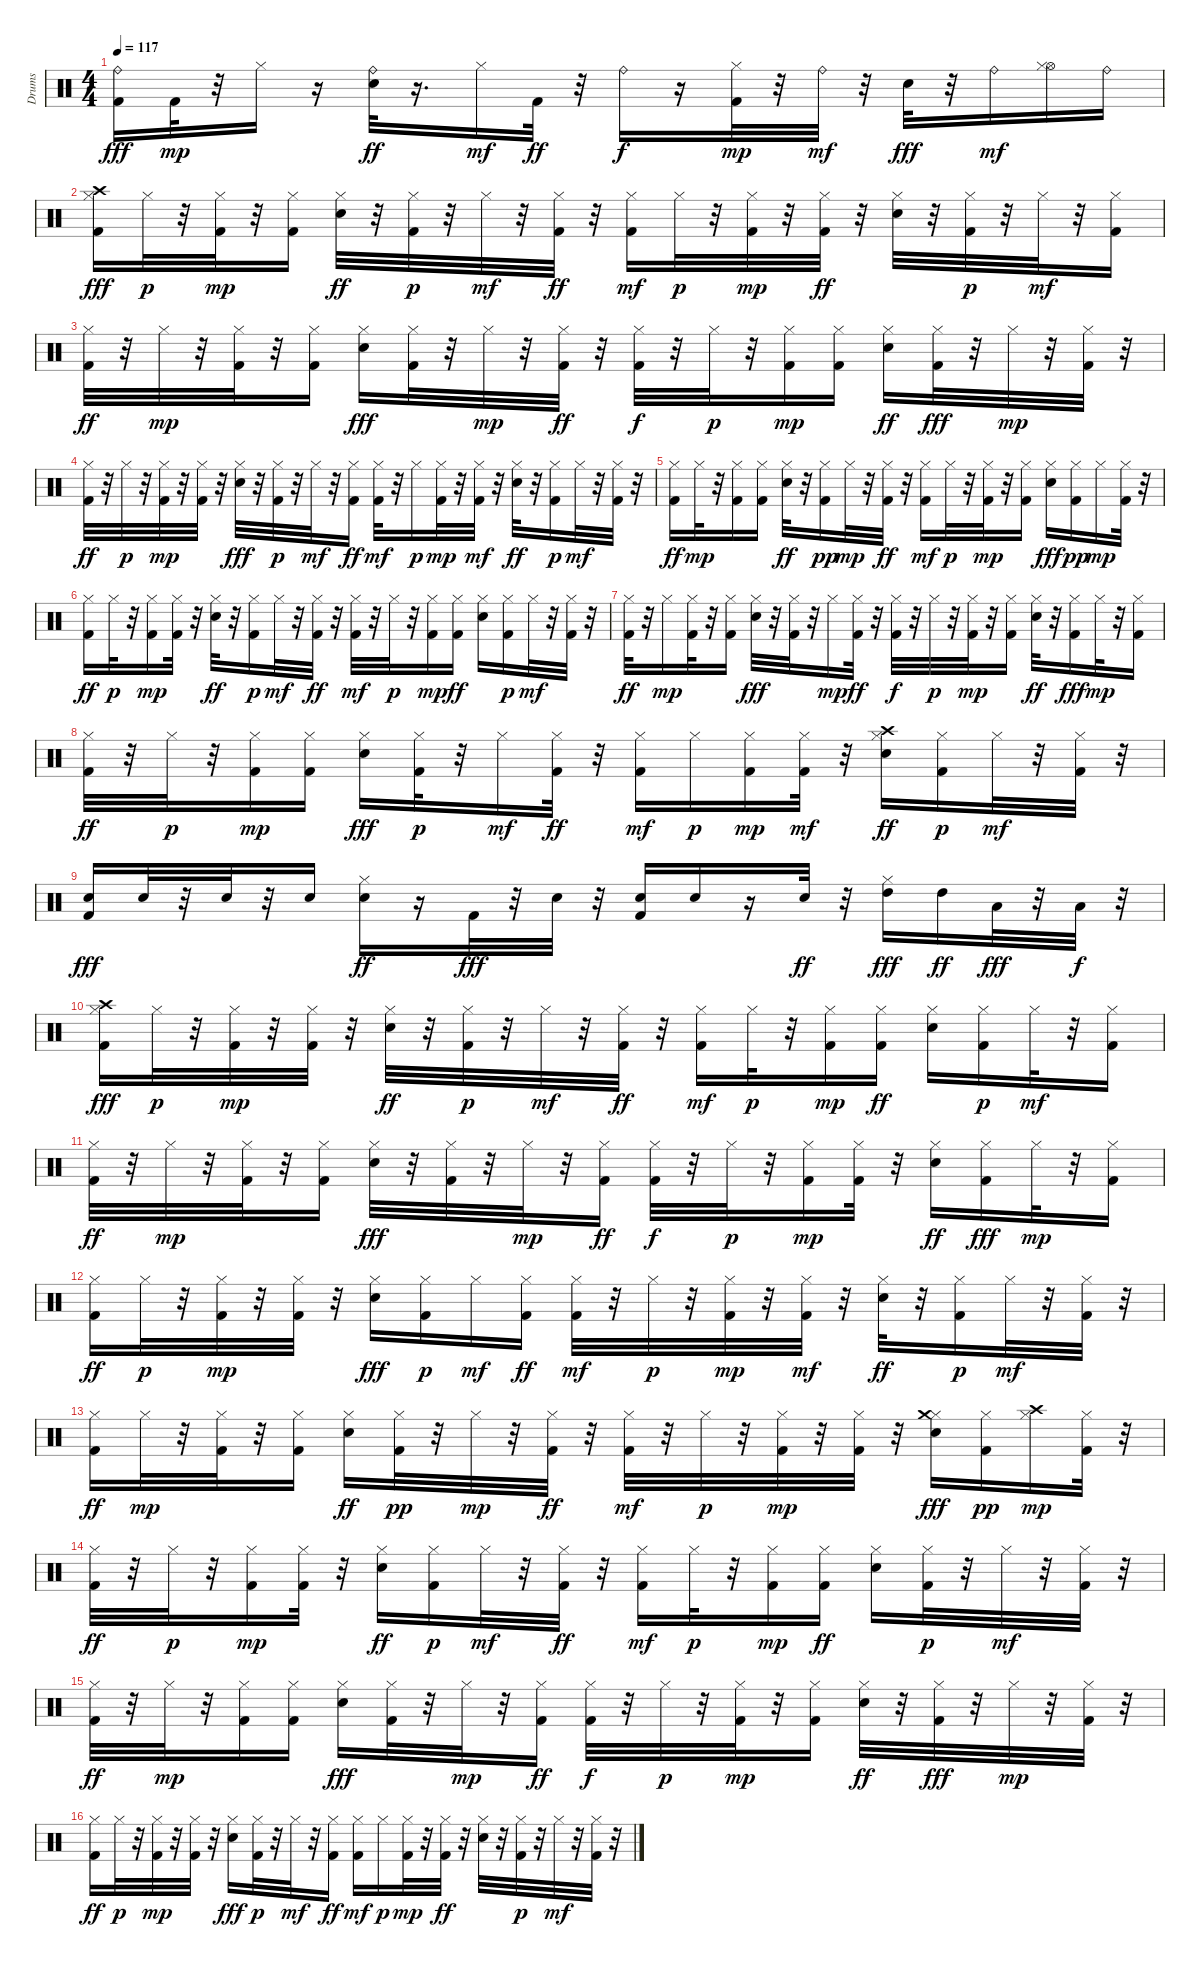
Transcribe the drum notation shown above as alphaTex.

\track ("Drums" "Drums") {instrument percussion}
\staff {score}
\articulation defaults
\ts (4 4)
\tempo 117
\clef neutral
\ks c
("Kick (hit) 2" "Ride (bell)").16{dy fff} "Kick (hit) 2".32{dy mp} r.32 "Hi-Hat (closed)".16 r.16 ("Ride (bell)" "Snare (hit) 2").32{dy ff} r.16{d} "Hi-Hat (closed)".16{dy mf} "Kick (hit) 2".32{dy ff} r.32 "Ride (bell)".16{dy f} r.16 ("Kick (hit) 2" "Hi-Hat (closed)").32{dy mp} r.32 "Ride (bell)".32{dy mf} r.32 "Snare (hit) 2".32{dy fff} r.32 "Ride (bell)".16{dy mf} ("Hi-Hat (open)" "Hi-Hat (closed)").16 "Ride (bell)".16 |
("Kick (hit) 2" "Hi-Hat (closed)" "Crash high (hit)").16{dy fff} "Hi-Hat (closed)".32{dy p} r.32 ("Kick (hit) 2" "Hi-Hat (closed)").32{dy mp} r.32 ("Kick (hit) 2" "Hi-Hat (closed)").16 ("Hi-Hat (closed)" "Snare (hit) 2").32{dy ff} r.32 ("Kick (hit) 2" "Hi-Hat (closed)").32{dy p} r.32 "Hi-Hat (closed)".32{dy mf} r.32 ("Kick (hit) 2" "Hi-Hat (closed)").32{dy ff} r.32 ("Kick (hit) 2" "Hi-Hat (closed)").16{dy mf} "Hi-Hat (closed)".32{dy p} r.32 ("Kick (hit) 2" "Hi-Hat (closed)").32{dy mp} r.32 ("Kick (hit) 2" "Hi-Hat (closed)").32{dy ff} r.32 ("Hi-Hat (closed)" "Snare (hit) 2").32 r.32 ("Kick (hit) 2" "Hi-Hat (closed)").32{dy p} r.32 "Hi-Hat (closed)".32{dy mf} r.32 ("Kick (hit) 2" "Hi-Hat (closed)").16 |
("Kick (hit) 2" "Hi-Hat (closed)").32{dy ff} r.32 "Hi-Hat (closed)".32{dy mp} r.32 ("Kick (hit) 2" "Hi-Hat (closed)").32 r.32 ("Kick (hit) 2" "Hi-Hat (closed)").16 ("Hi-Hat (closed)" "Snare (hit) 2").16{dy fff} ("Hi-Hat (closed)" "Kick (hit) 2").32 r.32 "Hi-Hat (closed)".32{dy mp} r.32 ("Kick (hit) 2" "Hi-Hat (closed)").32{dy ff} r.32 ("Hi-Hat (closed)" "Kick (hit) 2").32{dy f} r.32 "Hi-Hat (closed)".32{dy p} r.32 ("Kick (hit) 2" "Hi-Hat (closed)").16{dy mp} ("Kick (hit) 2" "Hi-Hat (closed)").16 ("Hi-Hat (closed)" "Snare (hit) 2").16{dy ff} ("Hi-Hat (closed)" "Kick (hit) 2").32{dy fff} r.32 "Hi-Hat (closed)".32{dy mp} r.32 ("Kick (hit) 2" "Hi-Hat (closed)").32 r.32 |
("Kick (hit) 2" "Hi-Hat (closed)").32{dy ff} r.32 "Hi-Hat (closed)".32{dy p} r.32 ("Kick (hit) 2" "Hi-Hat (closed)").32{dy mp} r.32 ("Kick (hit) 2" "Hi-Hat (closed)").32 r.32 ("Hi-Hat (closed)" "Snare (hit) 2").32{dy fff} r.32 ("Kick (hit) 2" "Hi-Hat (closed)").32{dy p} r.32 "Hi-Hat (closed)".32{dy mf} r.32 ("Hi-Hat (closed)" "Kick (hit) 2").16{dy ff} ("Kick (hit) 2" "Hi-Hat (closed)").32{dy mf} r.32 "Hi-Hat (closed)".16{dy p} ("Kick (hit) 2" "Hi-Hat (closed)").32{dy mp} r.32 ("Hi-Hat (closed)" "Kick (hit) 2").32{dy mf} r.32 ("Hi-Hat (closed)" "Snare (hit) 2").32{dy ff} r.32 ("Kick (hit) 2" "Hi-Hat (closed)").16{dy p} "Hi-Hat (closed)".32{dy mf} r.32 ("Kick (hit) 2" "Hi-Hat (closed)").32 r.32 |
("Kick (hit) 2" "Hi-Hat (closed)").16{dy ff} "Hi-Hat (closed)".32{dy mp} r.32 ("Kick (hit) 2" "Hi-Hat (closed)").16 ("Kick (hit) 2" "Hi-Hat (closed)").16 ("Hi-Hat (closed)" "Snare (hit) 2").32{dy ff} r.32 ("Kick (hit) 2" "Hi-Hat (closed)").16{dy pp} "Hi-Hat (closed)".32{dy mp} r.32 ("Kick (hit) 2" "Hi-Hat (closed)").32{dy ff} r.32 ("Kick (hit) 2" "Hi-Hat (closed)").16{dy mf} "Hi-Hat (closed)".32{dy p} r.32 ("Kick (hit) 2" "Hi-Hat (closed)").32{dy mp} r.32 ("Kick (hit) 2" "Hi-Hat (closed)").16 ("Hi-Hat (closed)" "Snare (hit) 2").16{dy fff} ("Kick (hit) 2" "Hi-Hat (closed)").16{dy pp} "Hi-Hat (closed)".16{dy mp} ("Kick (hit) 2" "Hi-Hat (closed)").32 r.32 |
("Kick (hit) 2" "Hi-Hat (closed)").16{dy ff} "Hi-Hat (closed)".32{dy p} r.32 ("Kick (hit) 2" "Hi-Hat (closed)").16{dy mp} ("Kick (hit) 2" "Hi-Hat (closed)").32 r.32 ("Hi-Hat (closed)" "Snare (hit) 2").32{dy ff} r.32 ("Kick (hit) 2" "Hi-Hat (closed)").16{dy p} "Hi-Hat (closed)".32{dy mf} r.32 ("Kick (hit) 2" "Hi-Hat (closed)").32{dy ff} r.32 ("Kick (hit) 2" "Hi-Hat (closed)").32{dy mf} r.32 "Hi-Hat (closed)".32{dy p} r.32 ("Kick (hit) 2" "Hi-Hat (closed)").16{dy mp} ("Kick (hit) 2" "Hi-Hat (closed)").16{dy ff} ("Hi-Hat (closed)" "Snare (hit) 2").16 ("Kick (hit) 2" "Hi-Hat (closed)").16{dy p} "Hi-Hat (closed)".32{dy mf} r.32 ("Kick (hit) 2" "Hi-Hat (closed)").32 r.32 |
("Kick (hit) 2" "Hi-Hat (closed)").32{dy ff} r.32 "Hi-Hat (closed)".16{dy mp} ("Kick (hit) 2" "Hi-Hat (closed)").32 r.32 ("Kick (hit) 2" "Hi-Hat (closed)").16 ("Hi-Hat (closed)" "Snare (hit) 2").32{dy fff} r.32 ("Hi-Hat (closed)" "Kick (hit) 2").32 r.32 "Hi-Hat (closed)".16{dy mp} ("Kick (hit) 2" "Hi-Hat (closed)").32{dy ff} r.32 ("Hi-Hat (closed)" "Kick (hit) 2").32{dy f} r.32 "Hi-Hat (closed)".32{dy p} r.32 ("Kick (hit) 2" "Hi-Hat (closed)").32{dy mp} r.32 ("Kick (hit) 2" "Hi-Hat (closed)").16 ("Hi-Hat (closed)" "Snare (hit) 2").32{dy ff} r.32 ("Hi-Hat (closed)" "Kick (hit) 2").16{dy fff} "Hi-Hat (closed)".32{dy mp} r.32 ("Kick (hit) 2" "Hi-Hat (closed)").16 |
("Kick (hit) 2" "Hi-Hat (closed)").32{dy ff} r.32 "Hi-Hat (closed)".32{dy p} r.32 ("Kick (hit) 2" "Hi-Hat (closed)").16{dy mp} ("Kick (hit) 2" "Hi-Hat (closed)").16 ("Hi-Hat (closed)" "Snare (hit) 2").16{dy fff} ("Kick (hit) 2" "Hi-Hat (closed)").32{dy p} r.32 "Hi-Hat (closed)".16{dy mf} ("Hi-Hat (closed)" "Kick (hit) 2").32{dy ff} r.32 ("Kick (hit) 2" "Hi-Hat (closed)").16{dy mf} "Hi-Hat (closed)".16{dy p} ("Kick (hit) 2" "Hi-Hat (closed)").16{dy mp} ("Hi-Hat (closed)" "Kick (hit) 2").32{dy mf} r.32 ("Hi-Hat (closed)" "Crash high (hit)" "Snare (hit) 2").16{dy ff} ("Kick (hit) 2" "Hi-Hat (closed)").16{dy p} "Hi-Hat (closed)".32{dy mf} r.32 ("Kick (hit) 2" "Hi-Hat (closed)").32 r.32 |
("Kick (hit) 2" "Snare (hit) 2").16{dy fff} "Snare (hit) 2".32 r.32 "Snare (hit) 2".32 r.32 "Snare (hit) 2".16 ("Snare (hit) 2" "Hi-Hat (closed)").16{dy ff} r.16 "Kick (hit) 2".32{dy fff} r.32 "Snare (hit) 2".32 r.32 ("Kick (hit) 2" "Snare (hit) 2").16 "Snare (hit) 2".16 r.16 "Snare (hit) 2".32{dy ff} r.32 ("Hi-Hat (closed)" "High Tom (hit)").16{dy fff} "High Tom (hit)".16{dy ff} "Low Tom (hit)".32{dy fff} r.32 "Low Floor Tom (hit)".32{dy f} r.32 |
("Kick (hit) 2" "Hi-Hat (closed)" "Crash high (hit)").16{dy fff} "Hi-Hat (closed)".32{dy p} r.32 ("Kick (hit) 2" "Hi-Hat (closed)").32{dy mp} r.32 ("Kick (hit) 2" "Hi-Hat (closed)").32 r.32 ("Hi-Hat (closed)" "Snare (hit) 2").32{dy ff} r.32 ("Kick (hit) 2" "Hi-Hat (closed)").32{dy p} r.32 "Hi-Hat (closed)".32{dy mf} r.32 ("Kick (hit) 2" "Hi-Hat (closed)").32{dy ff} r.32 ("Kick (hit) 2" "Hi-Hat (closed)").16{dy mf} "Hi-Hat (closed)".32{dy p} r.32 ("Kick (hit) 2" "Hi-Hat (closed)").16{dy mp} ("Kick (hit) 2" "Hi-Hat (closed)").16{dy ff} ("Hi-Hat (closed)" "Snare (hit) 2").16 ("Kick (hit) 2" "Hi-Hat (closed)").16{dy p} "Hi-Hat (closed)".32{dy mf} r.32 ("Kick (hit) 2" "Hi-Hat (closed)").16 |
("Kick (hit) 2" "Hi-Hat (closed)").32{dy ff} r.32 "Hi-Hat (closed)".32{dy mp} r.32 ("Kick (hit) 2" "Hi-Hat (closed)").32 r.32 ("Kick (hit) 2" "Hi-Hat (closed)").16 ("Hi-Hat (closed)" "Snare (hit) 2").32{dy fff} r.32 ("Hi-Hat (closed)" "Kick (hit) 2").32 r.32 "Hi-Hat (closed)".32{dy mp} r.32 ("Kick (hit) 2" "Hi-Hat (closed)").16{dy ff} ("Hi-Hat (closed)" "Kick (hit) 2").32{dy f} r.32 "Hi-Hat (closed)".32{dy p} r.32 ("Kick (hit) 2" "Hi-Hat (closed)").16{dy mp} ("Kick (hit) 2" "Hi-Hat (closed)").32 r.32 ("Hi-Hat (closed)" "Snare (hit) 2").16{dy ff} ("Hi-Hat (closed)" "Kick (hit) 2").16{dy fff} "Hi-Hat (closed)".32{dy mp} r.32 ("Kick (hit) 2" "Hi-Hat (closed)").16 |
("Kick (hit) 2" "Hi-Hat (closed)").16{dy ff} "Hi-Hat (closed)".32{dy p} r.32 ("Kick (hit) 2" "Hi-Hat (closed)").32{dy mp} r.32 ("Kick (hit) 2" "Hi-Hat (closed)").32 r.32 ("Hi-Hat (closed)" "Snare (hit) 2").16{dy fff} ("Kick (hit) 2" "Hi-Hat (closed)").16{dy p} "Hi-Hat (closed)".16{dy mf} ("Hi-Hat (closed)" "Kick (hit) 2").16{dy ff} ("Kick (hit) 2" "Hi-Hat (closed)").32{dy mf} r.32 "Hi-Hat (closed)".32{dy p} r.32 ("Kick (hit) 2" "Hi-Hat (closed)").32{dy mp} r.32 ("Hi-Hat (closed)" "Kick (hit) 2").32{dy mf} r.32 ("Hi-Hat (closed)" "Snare (hit) 2").32{dy ff} r.32 ("Kick (hit) 2" "Hi-Hat (closed)").16{dy p} "Hi-Hat (closed)".32{dy mf} r.32 ("Kick (hit) 2" "Hi-Hat (closed)").32 r.32 |
("Kick (hit) 2" "Hi-Hat (closed)").16{dy ff} "Hi-Hat (closed)".32{dy mp} r.32 ("Kick (hit) 2" "Hi-Hat (closed)").32 r.32 ("Kick (hit) 2" "Hi-Hat (closed)").16 ("Hi-Hat (closed)" "Snare (hit) 2").16{dy ff} ("Kick (hit) 2" "Hi-Hat (closed)").32{dy pp} r.32 "Hi-Hat (closed)".32{dy mp} r.32 ("Kick (hit) 2" "Hi-Hat (closed)").32{dy ff} r.32 ("Kick (hit) 2" "Hi-Hat (closed)").32{dy mf} r.32 "Hi-Hat (closed)".32{dy p} r.32 ("Kick (hit) 2" "Hi-Hat (closed)").32{dy mp} r.32 ("Kick (hit) 2" "Hi-Hat (closed)").32 r.32 ("Hi-Hat (closed)" "Crash medium (hit)" "Snare (hit) 2").16{dy fff} ("Kick (hit) 2" "Hi-Hat (closed)").16{dy pp} ("Hi-Hat (closed)" "Crash high (hit)").16{dy mp} ("Kick (hit) 2" "Hi-Hat (closed)").32 r.32 |
("Kick (hit) 2" "Hi-Hat (closed)").32{dy ff} r.32 "Hi-Hat (closed)".32{dy p} r.32 ("Kick (hit) 2" "Hi-Hat (closed)").16{dy mp} ("Kick (hit) 2" "Hi-Hat (closed)").32 r.32 ("Hi-Hat (closed)" "Snare (hit) 2").16{dy ff} ("Kick (hit) 2" "Hi-Hat (closed)").16{dy p} "Hi-Hat (closed)".32{dy mf} r.32 ("Kick (hit) 2" "Hi-Hat (closed)").32{dy ff} r.32 ("Kick (hit) 2" "Hi-Hat (closed)").16{dy mf} "Hi-Hat (closed)".32{dy p} r.32 ("Kick (hit) 2" "Hi-Hat (closed)").16{dy mp} ("Kick (hit) 2" "Hi-Hat (closed)").16{dy ff} ("Hi-Hat (closed)" "Snare (hit) 2").16 ("Kick (hit) 2" "Hi-Hat (closed)").32{dy p} r.32 "Hi-Hat (closed)".32{dy mf} r.32 ("Kick (hit) 2" "Hi-Hat (closed)").32 r.32 |
("Kick (hit) 2" "Hi-Hat (closed)").32{dy ff} r.32 "Hi-Hat (closed)".32{dy mp} r.32 ("Kick (hit) 2" "Hi-Hat (closed)").16 ("Kick (hit) 2" "Hi-Hat (closed)").16 ("Hi-Hat (closed)" "Snare (hit) 2").16{dy fff} ("Hi-Hat (closed)" "Kick (hit) 2").32 r.32 "Hi-Hat (closed)".32{dy mp} r.32 ("Kick (hit) 2" "Hi-Hat (closed)").16{dy ff} ("Hi-Hat (closed)" "Kick (hit) 2").32{dy f} r.32 "Hi-Hat (closed)".32{dy p} r.32 ("Kick (hit) 2" "Hi-Hat (closed)").32{dy mp} r.32 ("Kick (hit) 2" "Hi-Hat (closed)").16 ("Hi-Hat (closed)" "Snare (hit) 2").32{dy ff} r.32 ("Hi-Hat (closed)" "Kick (hit) 2").32{dy fff} r.32 "Hi-Hat (closed)".32{dy mp} r.32 ("Kick (hit) 2" "Hi-Hat (closed)").32 r.32 |
("Kick (hit) 2" "Hi-Hat (closed)").16{dy ff} "Hi-Hat (closed)".32{dy p} r.32 ("Kick (hit) 2" "Hi-Hat (closed)").32{dy mp} r.32 ("Kick (hit) 2" "Hi-Hat (closed)").32 r.32 ("Hi-Hat (closed)" "Snare (hit) 2").16{dy fff} ("Kick (hit) 2" "Hi-Hat (closed)").32{dy p} r.32 "Hi-Hat (closed)".32{dy mf} r.32 ("Hi-Hat (closed)" "Kick (hit) 2").16{dy ff} ("Kick (hit) 2" "Hi-Hat (closed)").16{dy mf} "Hi-Hat (closed)".16{dy p} ("Kick (hit) 2" "Hi-Hat (closed)").32{dy mp} r.32 ("Kick (hit) 2" "Hi-Hat (closed)").32{dy ff} r.32 ("Hi-Hat (closed)" "Snare (hit) 2").32 r.32 ("Kick (hit) 2" "Hi-Hat (closed)").32{dy p} r.32 "Hi-Hat (closed)".32{dy mf} r.32 ("Kick (hit) 2" "Hi-Hat (closed)").32 r.32
